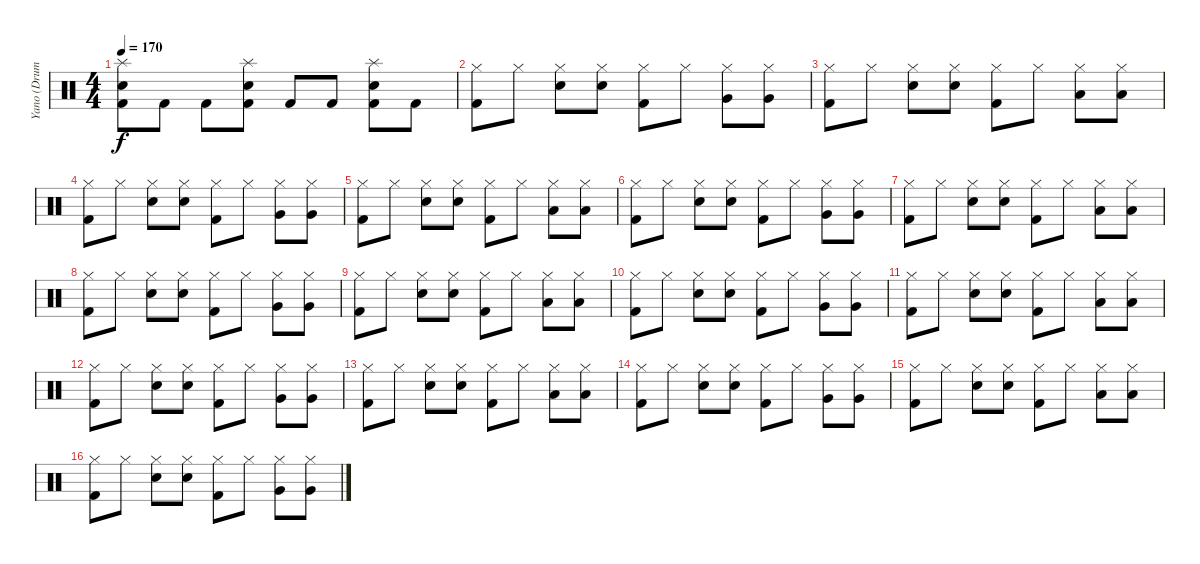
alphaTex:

\track ("Yano (Drums)" "Yano (Drum") {instrument percussion}
\staff {score}
\articulation defaults
\ts (4 4)
\tempo 170
\clef neutral
\ks c
("Splash (hit)" "Electric Snare (hit)" "Kick (hit) 2").8{dy f} "Kick (hit) 2".8 "Kick (hit) 2".8 ("Splash (hit)" "Electric Snare (hit)" "Kick (hit) 2").8 "Kick (hit) 2".8 "Kick (hit) 2".8 ("Splash (hit)" "Electric Snare (hit)" "Kick (hit) 2").8 "Kick (hit) 2".8 |
("Hi-Hat (closed)" "Kick (hit) 2").8 "Hi-Hat (closed)".8 ("Hi-Hat (closed)" "Electric Snare (hit)").8 ("Hi-Hat (closed)" "Electric Snare (hit)").8 ("Hi-Hat (closed)" "Kick (hit) 2").8 "Hi-Hat (closed)".8 ("Hi-Hat (closed)" "Very Low Tom (hit)").8 ("Hi-Hat (closed)" "Very Low Tom (hit)").8 |
("Hi-Hat (closed)" "Kick (hit) 2").8 "Hi-Hat (closed)".8 ("Hi-Hat (closed)" "Electric Snare (hit)").8 ("Hi-Hat (closed)" "Electric Snare (hit)").8 ("Hi-Hat (closed)" "Kick (hit) 2").8 "Hi-Hat (closed)".8 ("Hi-Hat (closed)" "Low Tom (hit)").8 ("Hi-Hat (closed)" "Low Tom (hit)").8 |
("Hi-Hat (closed)" "Kick (hit) 2").8 "Hi-Hat (closed)".8 ("Hi-Hat (closed)" "Electric Snare (hit)").8 ("Hi-Hat (closed)" "Electric Snare (hit)").8 ("Hi-Hat (closed)" "Kick (hit) 2").8 "Hi-Hat (closed)".8 ("Hi-Hat (closed)" "Very Low Tom (hit)").8 ("Hi-Hat (closed)" "Very Low Tom (hit)").8 |
("Hi-Hat (closed)" "Kick (hit) 2").8 "Hi-Hat (closed)".8 ("Hi-Hat (closed)" "Electric Snare (hit)").8 ("Hi-Hat (closed)" "Electric Snare (hit)").8 ("Hi-Hat (closed)" "Kick (hit) 2").8 "Hi-Hat (closed)".8 ("Hi-Hat (closed)" "Low Tom (hit)").8 ("Hi-Hat (closed)" "Low Tom (hit)").8 |
("Hi-Hat (closed)" "Kick (hit) 2").8 "Hi-Hat (closed)".8 ("Hi-Hat (closed)" "Electric Snare (hit)").8 ("Hi-Hat (closed)" "Electric Snare (hit)").8 ("Hi-Hat (closed)" "Kick (hit) 2").8 "Hi-Hat (closed)".8 ("Hi-Hat (closed)" "Very Low Tom (hit)").8 ("Hi-Hat (closed)" "Very Low Tom (hit)").8 |
("Hi-Hat (closed)" "Kick (hit) 2").8 "Hi-Hat (closed)".8 ("Hi-Hat (closed)" "Electric Snare (hit)").8 ("Hi-Hat (closed)" "Electric Snare (hit)").8 ("Hi-Hat (closed)" "Kick (hit) 2").8 "Hi-Hat (closed)".8 ("Hi-Hat (closed)" "Low Tom (hit)").8 ("Hi-Hat (closed)" "Low Tom (hit)").8 |
("Hi-Hat (closed)" "Kick (hit) 2").8 "Hi-Hat (closed)".8 ("Hi-Hat (closed)" "Electric Snare (hit)").8 ("Hi-Hat (closed)" "Electric Snare (hit)").8 ("Hi-Hat (closed)" "Kick (hit) 2").8 "Hi-Hat (closed)".8 ("Hi-Hat (closed)" "Very Low Tom (hit)").8 ("Hi-Hat (closed)" "Very Low Tom (hit)").8 |
("Hi-Hat (closed)" "Kick (hit) 2").8 "Hi-Hat (closed)".8 ("Hi-Hat (closed)" "Electric Snare (hit)").8 ("Hi-Hat (closed)" "Electric Snare (hit)").8 ("Hi-Hat (closed)" "Kick (hit) 2").8 "Hi-Hat (closed)".8 ("Hi-Hat (closed)" "Low Tom (hit)").8 ("Hi-Hat (closed)" "Low Tom (hit)").8 |
("Hi-Hat (closed)" "Kick (hit) 2").8 "Hi-Hat (closed)".8 ("Hi-Hat (closed)" "Electric Snare (hit)").8 ("Hi-Hat (closed)" "Electric Snare (hit)").8 ("Hi-Hat (closed)" "Kick (hit) 2").8 "Hi-Hat (closed)".8 ("Hi-Hat (closed)" "Very Low Tom (hit)").8 ("Hi-Hat (closed)" "Very Low Tom (hit)").8 |
("Hi-Hat (closed)" "Kick (hit) 2").8 "Hi-Hat (closed)".8 ("Hi-Hat (closed)" "Electric Snare (hit)").8 ("Hi-Hat (closed)" "Electric Snare (hit)").8 ("Hi-Hat (closed)" "Kick (hit) 2").8 "Hi-Hat (closed)".8 ("Hi-Hat (closed)" "Low Tom (hit)").8 ("Hi-Hat (closed)" "Low Tom (hit)").8 |
("Hi-Hat (closed)" "Kick (hit) 2").8 "Hi-Hat (closed)".8 ("Hi-Hat (closed)" "Electric Snare (hit)").8 ("Hi-Hat (closed)" "Electric Snare (hit)").8 ("Hi-Hat (closed)" "Kick (hit) 2").8 "Hi-Hat (closed)".8 ("Hi-Hat (closed)" "Very Low Tom (hit)").8 ("Hi-Hat (closed)" "Very Low Tom (hit)").8 |
("Hi-Hat (closed)" "Kick (hit) 2").8 "Hi-Hat (closed)".8 ("Hi-Hat (closed)" "Electric Snare (hit)").8 ("Hi-Hat (closed)" "Electric Snare (hit)").8 ("Hi-Hat (closed)" "Kick (hit) 2").8 "Hi-Hat (closed)".8 ("Hi-Hat (closed)" "Low Tom (hit)").8 ("Hi-Hat (closed)" "Low Tom (hit)").8 |
("Hi-Hat (closed)" "Kick (hit) 2").8 "Hi-Hat (closed)".8 ("Hi-Hat (closed)" "Electric Snare (hit)").8 ("Hi-Hat (closed)" "Electric Snare (hit)").8 ("Hi-Hat (closed)" "Kick (hit) 2").8 "Hi-Hat (closed)".8 ("Hi-Hat (closed)" "Very Low Tom (hit)").8 ("Hi-Hat (closed)" "Very Low Tom (hit)").8 |
("Hi-Hat (closed)" "Kick (hit) 2").8 "Hi-Hat (closed)".8 ("Hi-Hat (closed)" "Electric Snare (hit)").8 ("Hi-Hat (closed)" "Electric Snare (hit)").8 ("Hi-Hat (closed)" "Kick (hit) 2").8 "Hi-Hat (closed)".8 ("Hi-Hat (closed)" "Low Tom (hit)").8 ("Hi-Hat (closed)" "Low Tom (hit)").8 |
("Hi-Hat (closed)" "Kick (hit) 2").8 "Hi-Hat (closed)".8 ("Hi-Hat (closed)" "Electric Snare (hit)").8 ("Hi-Hat (closed)" "Electric Snare (hit)").8 ("Hi-Hat (closed)" "Kick (hit) 2").8 "Hi-Hat (closed)".8 ("Hi-Hat (closed)" "Very Low Tom (hit)").8 ("Hi-Hat (closed)" "Very Low Tom (hit)").8
